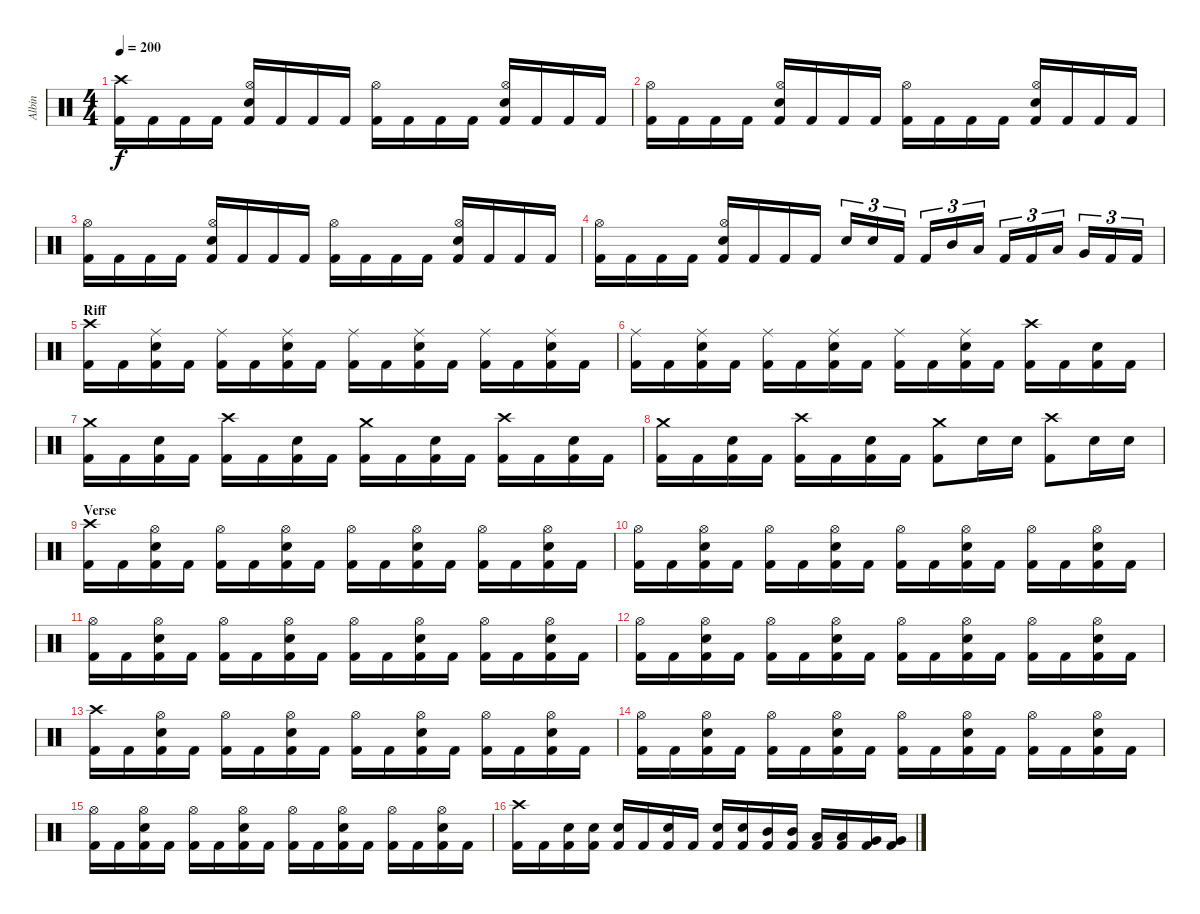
\track ("Albin" "Albin") {instrument percussion}
\staff {score}
\articulation defaults
\ts (4 4)
\tempo 200
\clef neutral
\ks c
("Crash high (hit)" "Kick (hit) 2").16{dy f} "Kick (hit) 2".16 "Kick (hit) 2".16 "Kick (hit) 2".16 ("Hi-Hat (open)" "Snare (hit) 2" "Kick (hit) 2").16 "Kick (hit) 2".16 "Kick (hit) 2".16 "Kick (hit) 2".16 ("Hi-Hat (open)" "Kick (hit) 2").16 "Kick (hit) 2".16 "Kick (hit) 2".16 "Kick (hit) 2".16 ("Hi-Hat (open)" "Snare (hit) 2" "Kick (hit) 2").16 "Kick (hit) 2".16 "Kick (hit) 2".16 "Kick (hit) 2".16 |
("Hi-Hat (open)" "Kick (hit) 2").16 "Kick (hit) 2".16 "Kick (hit) 2".16 "Kick (hit) 2".16 ("Hi-Hat (open)" "Snare (hit) 2" "Kick (hit) 2").16 "Kick (hit) 2".16 "Kick (hit) 2".16 "Kick (hit) 2".16 ("Hi-Hat (open)" "Kick (hit) 2").16 "Kick (hit) 2".16 "Kick (hit) 2".16 "Kick (hit) 2".16 ("Hi-Hat (open)" "Snare (hit) 2" "Kick (hit) 2").16 "Kick (hit) 2".16 "Kick (hit) 2".16 "Kick (hit) 2".16 |
("Hi-Hat (open)" "Kick (hit) 2").16 "Kick (hit) 2".16 "Kick (hit) 2".16 "Kick (hit) 2".16 ("Hi-Hat (open)" "Snare (hit) 2" "Kick (hit) 2").16 "Kick (hit) 2".16 "Kick (hit) 2".16 "Kick (hit) 2".16 ("Hi-Hat (open)" "Kick (hit) 2").16 "Kick (hit) 2".16 "Kick (hit) 2".16 "Kick (hit) 2".16 ("Hi-Hat (open)" "Snare (hit) 2" "Kick (hit) 2").16 "Kick (hit) 2".16 "Kick (hit) 2".16 "Kick (hit) 2".16 |
("Hi-Hat (open)" "Kick (hit) 2").16 "Kick (hit) 2".16 "Kick (hit) 2".16 "Kick (hit) 2".16 ("Hi-Hat (open)" "Snare (hit) 2" "Kick (hit) 2").16 "Kick (hit) 2".16 "Kick (hit) 2".16 "Kick (hit) 2".16 "Snare (hit) 2".16{tu (3 2)} "Snare (hit) 2".16{tu (3 2)} "Kick (hit) 2".16{tu (3 2)} "Kick (hit) 2".16{tu (3 2)} "Mid Tom (hit)".16{tu (3 2)} "Low Tom (hit)".16{tu (3 2)} "Kick (hit) 2".16{tu (3 2)} "Kick (hit) 2".16{tu (3 2)} "Low Tom (hit)".16{tu (3 2)} "Very Low Tom (hit)".16{tu (3 2)} "Kick (hit) 2".16{tu (3 2)} "Kick (hit) 2".16{tu (3 2)} |
\section ("" "Riff")
("Crash high (hit)" "Kick (hit) 2").16 "Kick (hit) 2".16 ("Ride (middle)" "Snare (hit) 2" "Kick (hit) 2").16 "Kick (hit) 2".16 ("Ride (middle)" "Kick (hit) 2").16 "Kick (hit) 2".16 ("Ride (middle)" "Snare (hit) 2" "Kick (hit) 2").16 "Kick (hit) 2".16 ("Ride (middle)" "Kick (hit) 2").16 "Kick (hit) 2".16 ("Ride (middle)" "Snare (hit) 2" "Kick (hit) 2").16 "Kick (hit) 2".16 ("Ride (middle)" "Kick (hit) 2").16 "Kick (hit) 2".16 ("Ride (middle)" "Snare (hit) 2" "Kick (hit) 2").16 "Kick (hit) 2".16 |
("Ride (middle)" "Kick (hit) 2").16 "Kick (hit) 2".16 ("Ride (middle)" "Snare (hit) 2" "Kick (hit) 2").16 "Kick (hit) 2".16 ("Ride (middle)" "Kick (hit) 2").16 "Kick (hit) 2".16 ("Ride (middle)" "Snare (hit) 2" "Kick (hit) 2").16 "Kick (hit) 2".16 ("Ride (middle)" "Kick (hit) 2").16 "Kick (hit) 2".16 ("Ride (middle)" "Snare (hit) 2" "Kick (hit) 2").16 "Kick (hit) 2".16 ("Crash high (hit)" "Kick (hit) 2").16 "Kick (hit) 2".16 ("Snare (hit) 2" "Kick (hit) 2").16 "Kick (hit) 2".16 |
("Crash medium (hit)" "Kick (hit) 2").16 "Kick (hit) 2".16 ("Snare (hit) 2" "Kick (hit) 2").16 "Kick (hit) 2".16 ("Crash high (hit)" "Kick (hit) 2").16 "Kick (hit) 2".16 ("Snare (hit) 2" "Kick (hit) 2").16 "Kick (hit) 2".16 ("Crash medium (hit)" "Kick (hit) 2").16 "Kick (hit) 2".16 ("Snare (hit) 2" "Kick (hit) 2").16 "Kick (hit) 2".16 ("Crash high (hit)" "Kick (hit) 2").16 "Kick (hit) 2".16 ("Snare (hit) 2" "Kick (hit) 2").16 "Kick (hit) 2".16 |
("Crash medium (hit)" "Kick (hit) 2").16 "Kick (hit) 2".16 ("Snare (hit) 2" "Kick (hit) 2").16 "Kick (hit) 2".16 ("Crash high (hit)" "Kick (hit) 2").16 "Kick (hit) 2".16 ("Snare (hit) 2" "Kick (hit) 2").16 "Kick (hit) 2".16 ("Crash medium (hit)" "Kick (hit) 2").8 "Snare (hit) 2".16 "Snare (hit) 2".16 ("Crash high (hit)" "Kick (hit) 2").8 "Snare (hit) 2".16 "Snare (hit) 2".16 |
\section ("" "Verse")
("Crash high (hit)" "Kick (hit) 2").16 "Kick (hit) 2".16 ("Hi-Hat (open)" "Snare (hit) 2" "Kick (hit) 2").16 "Kick (hit) 2".16 ("Hi-Hat (open)" "Kick (hit) 2").16 "Kick (hit) 2".16 ("Hi-Hat (open)" "Snare (hit) 2" "Kick (hit) 2").16 "Kick (hit) 2".16 ("Hi-Hat (open)" "Kick (hit) 2").16 "Kick (hit) 2".16 ("Hi-Hat (open)" "Snare (hit) 2" "Kick (hit) 2").16 "Kick (hit) 2".16 ("Hi-Hat (open)" "Kick (hit) 2").16 "Kick (hit) 2".16 ("Hi-Hat (open)" "Snare (hit) 2" "Kick (hit) 2").16 "Kick (hit) 2".16 |
("Hi-Hat (open)" "Kick (hit) 2").16 "Kick (hit) 2".16 ("Hi-Hat (open)" "Snare (hit) 2" "Kick (hit) 2").16 "Kick (hit) 2".16 ("Hi-Hat (open)" "Kick (hit) 2").16 "Kick (hit) 2".16 ("Hi-Hat (open)" "Snare (hit) 2" "Kick (hit) 2").16 "Kick (hit) 2".16 ("Hi-Hat (open)" "Kick (hit) 2").16 "Kick (hit) 2".16 ("Hi-Hat (open)" "Snare (hit) 2" "Kick (hit) 2").16 "Kick (hit) 2".16 ("Hi-Hat (open)" "Kick (hit) 2").16 "Kick (hit) 2".16 ("Hi-Hat (open)" "Snare (hit) 2" "Kick (hit) 2").16 "Kick (hit) 2".16 |
("Hi-Hat (open)" "Kick (hit) 2").16 "Kick (hit) 2".16 ("Hi-Hat (open)" "Snare (hit) 2" "Kick (hit) 2").16 "Kick (hit) 2".16 ("Hi-Hat (open)" "Kick (hit) 2").16 "Kick (hit) 2".16 ("Hi-Hat (open)" "Snare (hit) 2" "Kick (hit) 2").16 "Kick (hit) 2".16 ("Hi-Hat (open)" "Kick (hit) 2").16 "Kick (hit) 2".16 ("Hi-Hat (open)" "Snare (hit) 2" "Kick (hit) 2").16 "Kick (hit) 2".16 ("Hi-Hat (open)" "Kick (hit) 2").16 "Kick (hit) 2".16 ("Hi-Hat (open)" "Snare (hit) 2" "Kick (hit) 2").16 "Kick (hit) 2".16 |
("Hi-Hat (open)" "Kick (hit) 2").16 "Kick (hit) 2".16 ("Hi-Hat (open)" "Snare (hit) 2" "Kick (hit) 2").16 "Kick (hit) 2".16 ("Hi-Hat (open)" "Kick (hit) 2").16 "Kick (hit) 2".16 ("Hi-Hat (open)" "Snare (hit) 2" "Kick (hit) 2").16 "Kick (hit) 2".16 ("Hi-Hat (open)" "Kick (hit) 2").16 "Kick (hit) 2".16 ("Hi-Hat (open)" "Snare (hit) 2" "Kick (hit) 2").16 "Kick (hit) 2".16 ("Hi-Hat (open)" "Kick (hit) 2").16 "Kick (hit) 2".16 ("Hi-Hat (open)" "Snare (hit) 2" "Kick (hit) 2").16 "Kick (hit) 2".16 |
("Crash high (hit)" "Kick (hit) 2").16 "Kick (hit) 2".16 ("Hi-Hat (open)" "Snare (hit) 2" "Kick (hit) 2").16 "Kick (hit) 2".16 ("Hi-Hat (open)" "Kick (hit) 2").16 "Kick (hit) 2".16 ("Hi-Hat (open)" "Snare (hit) 2" "Kick (hit) 2").16 "Kick (hit) 2".16 ("Hi-Hat (open)" "Kick (hit) 2").16 "Kick (hit) 2".16 ("Hi-Hat (open)" "Snare (hit) 2" "Kick (hit) 2").16 "Kick (hit) 2".16 ("Hi-Hat (open)" "Kick (hit) 2").16 "Kick (hit) 2".16 ("Hi-Hat (open)" "Snare (hit) 2" "Kick (hit) 2").16 "Kick (hit) 2".16 |
("Hi-Hat (open)" "Kick (hit) 2").16 "Kick (hit) 2".16 ("Hi-Hat (open)" "Snare (hit) 2" "Kick (hit) 2").16 "Kick (hit) 2".16 ("Hi-Hat (open)" "Kick (hit) 2").16 "Kick (hit) 2".16 ("Hi-Hat (open)" "Snare (hit) 2" "Kick (hit) 2").16 "Kick (hit) 2".16 ("Hi-Hat (open)" "Kick (hit) 2").16 "Kick (hit) 2".16 ("Hi-Hat (open)" "Snare (hit) 2" "Kick (hit) 2").16 "Kick (hit) 2".16 ("Hi-Hat (open)" "Kick (hit) 2").16 "Kick (hit) 2".16 ("Hi-Hat (open)" "Snare (hit) 2" "Kick (hit) 2").16 "Kick (hit) 2".16 |
("Hi-Hat (open)" "Kick (hit) 2").16 "Kick (hit) 2".16 ("Hi-Hat (open)" "Snare (hit) 2" "Kick (hit) 2").16 "Kick (hit) 2".16 ("Hi-Hat (open)" "Kick (hit) 2").16 "Kick (hit) 2".16 ("Hi-Hat (open)" "Snare (hit) 2" "Kick (hit) 2").16 "Kick (hit) 2".16 ("Hi-Hat (open)" "Kick (hit) 2").16 "Kick (hit) 2".16 ("Hi-Hat (open)" "Snare (hit) 2" "Kick (hit) 2").16 "Kick (hit) 2".16 ("Hi-Hat (open)" "Kick (hit) 2").16 "Kick (hit) 2".16 ("Hi-Hat (open)" "Snare (hit) 2" "Kick (hit) 2").16 "Kick (hit) 2".16 |
("Crash high (hit)" "Kick (hit) 2").16 "Kick (hit) 2".16 ("Snare (hit) 2" "Kick (hit) 2").16 ("Snare (hit) 2" "Kick (hit) 2").16 ("Snare (hit) 2" "Kick (hit) 2").16 "Kick (hit) 2".16 ("Snare (hit) 2" "Kick (hit) 2").16 "Kick (hit) 2".16 ("Snare (hit) 2" "Kick (hit) 2").16 ("Snare (hit) 2" "Kick (hit) 2").16 ("Mid Tom (hit)" "Kick (hit) 2").16 ("Mid Tom (hit)" "Kick (hit) 2").16 ("Low Tom (hit)" "Kick (hit) 2").16 ("Low Tom (hit)" "Kick (hit) 2").16 ("Very Low Tom (hit)" "Kick (hit) 2").16 ("Very Low Tom (hit)" "Kick (hit) 2").16
